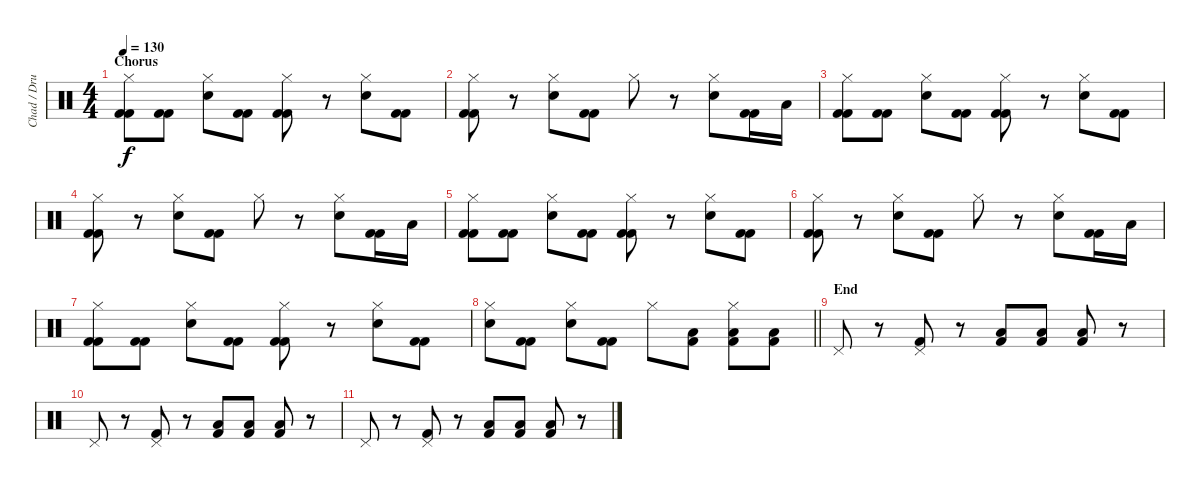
\track ("Chad / Drums" "Chad / Dru") {instrument percussion}
\staff {score}
\articulation defaults
\ts (4 4)
\section ("" "Chorus")
\tempo 130
\clef neutral
\ks c
("Hi-Hat (closed)" "Kick (hit) 2" "Kick (hit) 2").8{dy f} ("Kick (hit) 2" "Kick (hit) 2").8 ("Hi-Hat (closed)" "Snare (hit) 2").8 ("Kick (hit) 2" "Kick (hit) 2").8 ("Hi-Hat (closed)" "Kick (hit) 2" "Kick (hit) 2").8 r.8 ("Hi-Hat (closed)" "Snare (hit) 2").8 ("Kick (hit) 2" "Kick (hit) 2").8 |
("Hi-Hat (closed)" "Kick (hit) 2" "Kick (hit) 2").8 r.8 ("Hi-Hat (closed)" "Snare (hit) 2").8 ("Kick (hit) 2" "Kick (hit) 2").8 "Hi-Hat (closed)".8 r.8 ("Hi-Hat (closed)" "Snare (hit) 2").8 ("Kick (hit) 2" "Kick (hit) 2").16 "Low Floor Tom (hit)".16 |
("Hi-Hat (closed)" "Kick (hit) 2" "Kick (hit) 2").8 ("Kick (hit) 2" "Kick (hit) 2").8 ("Hi-Hat (closed)" "Snare (hit) 2").8 ("Kick (hit) 2" "Kick (hit) 2").8 ("Hi-Hat (closed)" "Kick (hit) 2" "Kick (hit) 2").8 r.8 ("Hi-Hat (closed)" "Snare (hit) 2").8 ("Kick (hit) 2" "Kick (hit) 2").8 |
("Hi-Hat (closed)" "Kick (hit) 2" "Kick (hit) 2").8 r.8 ("Hi-Hat (closed)" "Snare (hit) 2").8 ("Kick (hit) 2" "Kick (hit) 2").8 "Hi-Hat (closed)".8 r.8 ("Hi-Hat (closed)" "Snare (hit) 2").8 ("Kick (hit) 2" "Kick (hit) 2").16 "Low Floor Tom (hit)".16 |
("Hi-Hat (closed)" "Kick (hit) 2" "Kick (hit) 2").8 ("Kick (hit) 2" "Kick (hit) 2").8 ("Hi-Hat (closed)" "Snare (hit) 2").8 ("Kick (hit) 2" "Kick (hit) 2").8 ("Hi-Hat (closed)" "Kick (hit) 2" "Kick (hit) 2").8 r.8 ("Hi-Hat (closed)" "Snare (hit) 2").8 ("Kick (hit) 2" "Kick (hit) 2").8 |
("Hi-Hat (closed)" "Kick (hit) 2" "Kick (hit) 2").8 r.8 ("Hi-Hat (closed)" "Snare (hit) 2").8 ("Kick (hit) 2" "Kick (hit) 2").8 "Hi-Hat (closed)".8 r.8 ("Hi-Hat (closed)" "Snare (hit) 2").8 ("Kick (hit) 2" "Kick (hit) 2").16 "Low Floor Tom (hit)".16 |
("Hi-Hat (closed)" "Kick (hit) 2" "Kick (hit) 2").8 ("Kick (hit) 2" "Kick (hit) 2").8 ("Hi-Hat (closed)" "Snare (hit) 2").8 ("Kick (hit) 2" "Kick (hit) 2").8 ("Hi-Hat (closed)" "Kick (hit) 2" "Kick (hit) 2").8 r.8 ("Hi-Hat (closed)" "Snare (hit) 2").8 ("Kick (hit) 2" "Kick (hit) 2").8 |
\barLineRight lightlight
("Hi-Hat (closed)" "Snare (hit) 2").8 ("Kick (hit) 2" "Kick (hit) 2").8 ("Hi-Hat (closed)" "Snare (hit) 2").8 ("Kick (hit) 2" "Kick (hit) 2").8 "Hi-Hat (closed)".8 ("Low Floor Tom (hit)" "Kick (hit) 2").8 ("Hi-Hat (closed)" "Low Floor Tom (hit)" "Kick (hit) 2").8 ("Low Floor Tom (hit)" "Kick (hit) 2").8 |
\section ("" "End")
"Pedal Hi-Hat (hit)".8 r.8 ("Pedal Hi-Hat (hit)" "Kick (hit) 2").8 r.8 ("Low Floor Tom (hit)" "Kick (hit) 2").8 ("Low Floor Tom (hit)" "Kick (hit) 2").8 ("Low Floor Tom (hit)" "Kick (hit) 2").8 r.8 |
"Pedal Hi-Hat (hit)".8 r.8 ("Pedal Hi-Hat (hit)" "Kick (hit) 2").8 r.8 ("Low Floor Tom (hit)" "Kick (hit) 2").8 ("Low Floor Tom (hit)" "Kick (hit) 2").8 ("Low Floor Tom (hit)" "Kick (hit) 2").8 r.8 |
"Pedal Hi-Hat (hit)".8 r.8 ("Pedal Hi-Hat (hit)" "Kick (hit) 2").8 r.8 ("Low Floor Tom (hit)" "Kick (hit) 2").8 ("Low Floor Tom (hit)" "Kick (hit) 2").8 ("Low Floor Tom (hit)" "Kick (hit) 2").8 r.8
